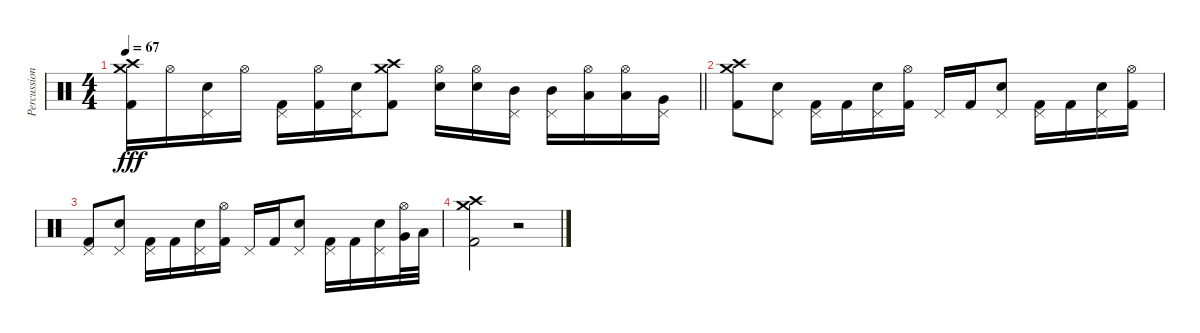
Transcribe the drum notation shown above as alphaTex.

\track ("Percussion(Tomi)" "Percussion") {instrument percussion}
\staff {score}
\articulation defaults
\ts (4 4)
\tempo 67
\clef neutral
\barLineRight lightlight
\ks c
("Crash high (hit)" "Kick (hit) 2" "Crash medium (hit)").16{dy fff} "Hi-Hat (open)".16 ("Pedal Hi-Hat (hit)" "Electric Snare (hit)").16 "Hi-Hat (open)".16 ("Pedal Hi-Hat (hit)" "Kick (hit) 2").16 ("Kick (hit) 2" "Hi-Hat (open)").16 ("Pedal Hi-Hat (hit)" "Electric Snare (hit)").16 ("Kick (hit) 2" "Crash high (hit)" "Crash medium (hit)").8 ("Hi-Hat (open)" "Electric Snare (hit)").16 ("Hi-Hat (open)" "Electric Snare (hit)").16 ("Mid Tom (hit)" "Pedal Hi-Hat (hit)").16 ("Pedal Hi-Hat (hit)" "Mid Tom (hit)").16 ("Hi-Hat (open)" "Low Tom (hit)").16 ("Hi-Hat (open)" "Low Tom (hit)").16 ("Pedal Hi-Hat (hit)" "Very Low Tom (hit)").16 |
("Kick (hit) 2" "Crash medium (hit)" "Crash high (hit)").8 ("Pedal Hi-Hat (hit)" "Electric Snare (hit)").8 ("Kick (hit) 2" "Pedal Hi-Hat (hit)").16 "Kick (hit) 2".16 ("Pedal Hi-Hat (hit)" "Electric Snare (hit)").16 ("Kick (hit) 2" "Hi-Hat (open)").16 "Pedal Hi-Hat (hit)".16 "Kick (hit) 2".16 ("Electric Snare (hit)" "Pedal Hi-Hat (hit)").8 ("Kick (hit) 2" "Pedal Hi-Hat (hit)").16 "Kick (hit) 2".16 ("Pedal Hi-Hat (hit)" "Electric Snare (hit)").16 ("Kick (hit) 2" "Hi-Hat (open)").16 |
("Kick (hit) 2" "Pedal Hi-Hat (hit)").8 ("Pedal Hi-Hat (hit)" "Electric Snare (hit)").8 ("Kick (hit) 2" "Pedal Hi-Hat (hit)").16 "Kick (hit) 2".16 ("Pedal Hi-Hat (hit)" "Electric Snare (hit)").16 ("Kick (hit) 2" "Hi-Hat (open)").16 "Pedal Hi-Hat (hit)".16 "Kick (hit) 2".16 ("Pedal Hi-Hat (hit)" "Electric Snare (hit)").8 ("Kick (hit) 2" "Pedal Hi-Hat (hit)").16 "Kick (hit) 2".16 ("Pedal Hi-Hat (hit)" "Electric Snare (hit)").16 ("Hi-Hat (open)" "Very Low Tom (hit)").32 "Low Floor Tom (hit)".32 |
("Crash high (hit)" "Kick (hit) 2" "Crash medium (hit)").2 r.2
